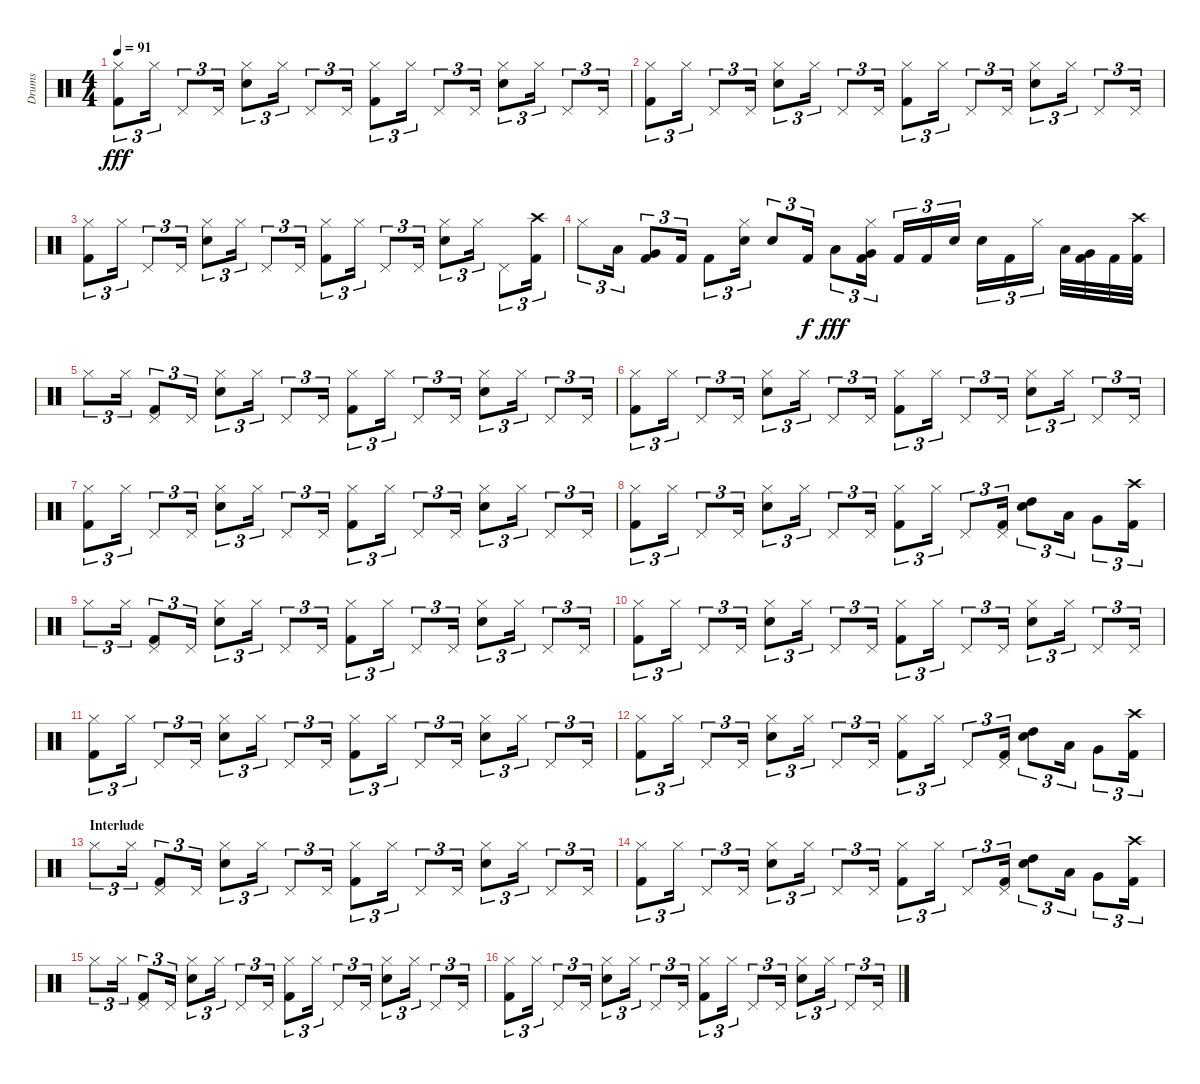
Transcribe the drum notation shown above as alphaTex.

\track ("Drums" "Drums") {instrument percussion}
\staff {score}
\articulation defaults
\ts (4 4)
\tempo 91
\clef neutral
\ks c
("Hi-Hat (closed)" "Kick (hit) 2").8{tu (3 2) dy fff} "Hi-Hat (closed)".16{tu (3 2)} "Pedal Hi-Hat (hit)".8{tu (3 2)} "Pedal Hi-Hat (hit)".16{tu (3 2)} ("Snare (hit) 2" "Hi-Hat (closed)").8{tu (3 2)} "Hi-Hat (closed)".16{tu (3 2)} "Pedal Hi-Hat (hit)".8{tu (3 2)} "Pedal Hi-Hat (hit)".16{tu (3 2)} ("Kick (hit) 2" "Hi-Hat (closed)").8{tu (3 2)} "Hi-Hat (closed)".16{tu (3 2)} "Pedal Hi-Hat (hit)".8{tu (3 2)} "Pedal Hi-Hat (hit)".16{tu (3 2)} ("Snare (hit) 2" "Hi-Hat (closed)").8{tu (3 2)} "Hi-Hat (closed)".16{tu (3 2)} "Pedal Hi-Hat (hit)".8{tu (3 2)} "Pedal Hi-Hat (hit)".16{tu (3 2)} |
("Hi-Hat (closed)" "Kick (hit) 2").8{tu (3 2)} "Hi-Hat (closed)".16{tu (3 2)} "Pedal Hi-Hat (hit)".8{tu (3 2)} "Pedal Hi-Hat (hit)".16{tu (3 2)} ("Snare (hit) 2" "Hi-Hat (closed)").8{tu (3 2)} "Hi-Hat (closed)".16{tu (3 2)} "Pedal Hi-Hat (hit)".8{tu (3 2)} "Pedal Hi-Hat (hit)".16{tu (3 2)} ("Kick (hit) 2" "Hi-Hat (closed)").8{tu (3 2)} "Hi-Hat (closed)".16{tu (3 2)} "Pedal Hi-Hat (hit)".8{tu (3 2)} "Pedal Hi-Hat (hit)".16{tu (3 2)} ("Snare (hit) 2" "Hi-Hat (closed)").8{tu (3 2)} "Hi-Hat (closed)".16{tu (3 2)} "Pedal Hi-Hat (hit)".8{tu (3 2)} "Pedal Hi-Hat (hit)".16{tu (3 2)} |
("Hi-Hat (closed)" "Kick (hit) 2").8{tu (3 2)} "Hi-Hat (closed)".16{tu (3 2)} "Pedal Hi-Hat (hit)".8{tu (3 2)} "Pedal Hi-Hat (hit)".16{tu (3 2)} ("Snare (hit) 2" "Hi-Hat (closed)").8{tu (3 2)} "Hi-Hat (closed)".16{tu (3 2)} "Pedal Hi-Hat (hit)".8{tu (3 2)} "Pedal Hi-Hat (hit)".16{tu (3 2)} ("Kick (hit) 2" "Hi-Hat (closed)").8{tu (3 2)} "Hi-Hat (closed)".16{tu (3 2)} "Pedal Hi-Hat (hit)".8{tu (3 2)} "Pedal Hi-Hat (hit)".16{tu (3 2)} ("Snare (hit) 2" "Hi-Hat (closed)").8{tu (3 2)} "Hi-Hat (closed)".16{tu (3 2)} "Pedal Hi-Hat (hit)".8{tu (3 2)} ("Crash high (hit)" "Kick (hit) 2").16{tu (3 2)} |
"Hi-Hat (closed)".8{tu (3 2)} "Low Tom (hit)".16{tu (3 2)} ("Very Low Tom (hit)" "Kick (hit) 2").8{tu (3 2)} "Kick (hit) 2".16{tu (3 2)} "Kick (hit) 2".8{tu (3 2)} ("Hi-Hat (closed)" "Snare (hit) 2").16{tu (3 2)} "Electric Snare (hit)".8{tu (3 2)} "Kick (hit) 2".16{tu (3 2) dy f} "Low Tom (hit)".8{tu (3 2) dy fff} ("Hi-Hat (closed)" "Very Low Tom (hit)" "Kick (hit) 2").16{tu (3 2)} "Kick (hit) 2".16{tu (3 2)} "Kick (hit) 2".16{tu (3 2)} "Snare (hit) 2".16{tu (3 2)} "Snare (hit) 2".16{tu (3 2)} "Kick (hit) 2".16{tu (3 2)} "Hi-Hat (closed)".16{tu (3 2)} "Low Tom (hit)".32 ("Very Low Tom (hit)" "Kick (hit) 2").32 "Kick (hit) 2".32 ("Crash high (hit)" "Kick (hit) 2").32 |
"Hi-Hat (closed)".8{tu (3 2)} "Hi-Hat (closed)".16{tu (3 2)} ("Kick (hit) 2" "Pedal Hi-Hat (hit)").8{tu (3 2)} "Pedal Hi-Hat (hit)".16{tu (3 2)} ("Snare (hit) 2" "Hi-Hat (closed)").8{tu (3 2)} "Hi-Hat (closed)".16{tu (3 2)} "Pedal Hi-Hat (hit)".8{tu (3 2)} "Pedal Hi-Hat (hit)".16{tu (3 2)} ("Kick (hit) 2" "Hi-Hat (closed)").8{tu (3 2)} "Hi-Hat (closed)".16{tu (3 2)} "Pedal Hi-Hat (hit)".8{tu (3 2)} "Pedal Hi-Hat (hit)".16{tu (3 2)} ("Snare (hit) 2" "Hi-Hat (closed)").8{tu (3 2)} "Hi-Hat (closed)".16{tu (3 2)} "Pedal Hi-Hat (hit)".8{tu (3 2)} "Pedal Hi-Hat (hit)".16{tu (3 2)} |
("Hi-Hat (closed)" "Kick (hit) 2").8{tu (3 2)} "Hi-Hat (closed)".16{tu (3 2)} "Pedal Hi-Hat (hit)".8{tu (3 2)} "Pedal Hi-Hat (hit)".16{tu (3 2)} ("Snare (hit) 2" "Hi-Hat (closed)").8{tu (3 2)} "Hi-Hat (closed)".16{tu (3 2)} "Pedal Hi-Hat (hit)".8{tu (3 2)} "Pedal Hi-Hat (hit)".16{tu (3 2)} ("Kick (hit) 2" "Hi-Hat (closed)").8{tu (3 2)} "Hi-Hat (closed)".16{tu (3 2)} "Pedal Hi-Hat (hit)".8{tu (3 2)} "Pedal Hi-Hat (hit)".16{tu (3 2)} ("Snare (hit) 2" "Hi-Hat (closed)").8{tu (3 2)} "Hi-Hat (closed)".16{tu (3 2)} "Pedal Hi-Hat (hit)".8{tu (3 2)} "Pedal Hi-Hat (hit)".16{tu (3 2)} |
("Hi-Hat (closed)" "Kick (hit) 2").8{tu (3 2)} "Hi-Hat (closed)".16{tu (3 2)} "Pedal Hi-Hat (hit)".8{tu (3 2)} "Pedal Hi-Hat (hit)".16{tu (3 2)} ("Snare (hit) 2" "Hi-Hat (closed)").8{tu (3 2)} "Hi-Hat (closed)".16{tu (3 2)} "Pedal Hi-Hat (hit)".8{tu (3 2)} "Pedal Hi-Hat (hit)".16{tu (3 2)} ("Kick (hit) 2" "Hi-Hat (closed)").8{tu (3 2)} "Hi-Hat (closed)".16{tu (3 2)} "Pedal Hi-Hat (hit)".8{tu (3 2)} "Pedal Hi-Hat (hit)".16{tu (3 2)} ("Snare (hit) 2" "Hi-Hat (closed)").8{tu (3 2)} "Hi-Hat (closed)".16{tu (3 2)} "Pedal Hi-Hat (hit)".8{tu (3 2)} "Pedal Hi-Hat (hit)".16{tu (3 2)} |
("Hi-Hat (closed)" "Kick (hit) 2").8{tu (3 2)} "Hi-Hat (closed)".16{tu (3 2)} "Pedal Hi-Hat (hit)".8{tu (3 2)} "Pedal Hi-Hat (hit)".16{tu (3 2)} ("Snare (hit) 2" "Hi-Hat (closed)").8{tu (3 2)} "Hi-Hat (closed)".16{tu (3 2)} "Pedal Hi-Hat (hit)".8{tu (3 2)} "Pedal Hi-Hat (hit)".16{tu (3 2)} ("Kick (hit) 2" "Hi-Hat (closed)").8{tu (3 2)} "Hi-Hat (closed)".16{tu (3 2)} "Pedal Hi-Hat (hit)".8{tu (3 2)} ("Kick (hit) 2" "Pedal Hi-Hat (hit)").16{tu (3 2)} ("Snare (hit) 2" "High Tom (hit)").8{tu (3 2)} "Low Tom (hit)".16{tu (3 2)} "Very Low Tom (hit)".8{tu (3 2)} ("Crash high (hit)" "Kick (hit) 2").16{tu (3 2)} |
"Hi-Hat (closed)".8{tu (3 2)} "Hi-Hat (closed)".16{tu (3 2)} ("Kick (hit) 2" "Pedal Hi-Hat (hit)").8{tu (3 2)} "Pedal Hi-Hat (hit)".16{tu (3 2)} ("Snare (hit) 2" "Hi-Hat (closed)").8{tu (3 2)} "Hi-Hat (closed)".16{tu (3 2)} "Pedal Hi-Hat (hit)".8{tu (3 2)} "Pedal Hi-Hat (hit)".16{tu (3 2)} ("Kick (hit) 2" "Hi-Hat (closed)").8{tu (3 2)} "Hi-Hat (closed)".16{tu (3 2)} "Pedal Hi-Hat (hit)".8{tu (3 2)} "Pedal Hi-Hat (hit)".16{tu (3 2)} ("Snare (hit) 2" "Hi-Hat (closed)").8{tu (3 2)} "Hi-Hat (closed)".16{tu (3 2)} "Pedal Hi-Hat (hit)".8{tu (3 2)} "Pedal Hi-Hat (hit)".16{tu (3 2)} |
("Hi-Hat (closed)" "Kick (hit) 2").8{tu (3 2)} "Hi-Hat (closed)".16{tu (3 2)} "Pedal Hi-Hat (hit)".8{tu (3 2)} "Pedal Hi-Hat (hit)".16{tu (3 2)} ("Snare (hit) 2" "Hi-Hat (closed)").8{tu (3 2)} "Hi-Hat (closed)".16{tu (3 2)} "Pedal Hi-Hat (hit)".8{tu (3 2)} "Pedal Hi-Hat (hit)".16{tu (3 2)} ("Kick (hit) 2" "Hi-Hat (closed)").8{tu (3 2)} "Hi-Hat (closed)".16{tu (3 2)} "Pedal Hi-Hat (hit)".8{tu (3 2)} "Pedal Hi-Hat (hit)".16{tu (3 2)} ("Snare (hit) 2" "Hi-Hat (closed)").8{tu (3 2)} "Hi-Hat (closed)".16{tu (3 2)} "Pedal Hi-Hat (hit)".8{tu (3 2)} "Pedal Hi-Hat (hit)".16{tu (3 2)} |
("Hi-Hat (closed)" "Kick (hit) 2").8{tu (3 2)} "Hi-Hat (closed)".16{tu (3 2)} "Pedal Hi-Hat (hit)".8{tu (3 2)} "Pedal Hi-Hat (hit)".16{tu (3 2)} ("Snare (hit) 2" "Hi-Hat (closed)").8{tu (3 2)} "Hi-Hat (closed)".16{tu (3 2)} "Pedal Hi-Hat (hit)".8{tu (3 2)} "Pedal Hi-Hat (hit)".16{tu (3 2)} ("Kick (hit) 2" "Hi-Hat (closed)").8{tu (3 2)} "Hi-Hat (closed)".16{tu (3 2)} "Pedal Hi-Hat (hit)".8{tu (3 2)} "Pedal Hi-Hat (hit)".16{tu (3 2)} ("Snare (hit) 2" "Hi-Hat (closed)").8{tu (3 2)} "Hi-Hat (closed)".16{tu (3 2)} "Pedal Hi-Hat (hit)".8{tu (3 2)} "Pedal Hi-Hat (hit)".16{tu (3 2)} |
("Hi-Hat (closed)" "Kick (hit) 2").8{tu (3 2)} "Hi-Hat (closed)".16{tu (3 2)} "Pedal Hi-Hat (hit)".8{tu (3 2)} "Pedal Hi-Hat (hit)".16{tu (3 2)} ("Snare (hit) 2" "Hi-Hat (closed)").8{tu (3 2)} "Hi-Hat (closed)".16{tu (3 2)} "Pedal Hi-Hat (hit)".8{tu (3 2)} "Pedal Hi-Hat (hit)".16{tu (3 2)} ("Kick (hit) 2" "Hi-Hat (closed)").8{tu (3 2)} "Hi-Hat (closed)".16{tu (3 2)} "Pedal Hi-Hat (hit)".8{tu (3 2)} ("Kick (hit) 2" "Pedal Hi-Hat (hit)").16{tu (3 2)} ("Snare (hit) 2" "High Tom (hit)").8{tu (3 2)} "Low Tom (hit)".16{tu (3 2)} "Very Low Tom (hit)".8{tu (3 2)} ("Crash high (hit)" "Kick (hit) 2").16{tu (3 2)} |
\section ("" "Interlude")
"Hi-Hat (closed)".8{tu (3 2)} "Hi-Hat (closed)".16{tu (3 2)} ("Kick (hit) 2" "Pedal Hi-Hat (hit)").8{tu (3 2)} "Pedal Hi-Hat (hit)".16{tu (3 2)} ("Snare (hit) 2" "Hi-Hat (closed)").8{tu (3 2)} "Hi-Hat (closed)".16{tu (3 2)} "Pedal Hi-Hat (hit)".8{tu (3 2)} "Pedal Hi-Hat (hit)".16{tu (3 2)} ("Kick (hit) 2" "Hi-Hat (closed)").8{tu (3 2)} "Hi-Hat (closed)".16{tu (3 2)} "Pedal Hi-Hat (hit)".8{tu (3 2)} "Pedal Hi-Hat (hit)".16{tu (3 2)} ("Snare (hit) 2" "Hi-Hat (closed)").8{tu (3 2)} "Hi-Hat (closed)".16{tu (3 2)} "Pedal Hi-Hat (hit)".8{tu (3 2)} "Pedal Hi-Hat (hit)".16{tu (3 2)} |
("Hi-Hat (closed)" "Kick (hit) 2").8{tu (3 2)} "Hi-Hat (closed)".16{tu (3 2)} "Pedal Hi-Hat (hit)".8{tu (3 2)} "Pedal Hi-Hat (hit)".16{tu (3 2)} ("Snare (hit) 2" "Hi-Hat (closed)").8{tu (3 2)} "Hi-Hat (closed)".16{tu (3 2)} "Pedal Hi-Hat (hit)".8{tu (3 2)} "Pedal Hi-Hat (hit)".16{tu (3 2)} ("Kick (hit) 2" "Hi-Hat (closed)").8{tu (3 2)} "Hi-Hat (closed)".16{tu (3 2)} "Pedal Hi-Hat (hit)".8{tu (3 2)} ("Kick (hit) 2" "Pedal Hi-Hat (hit)").16{tu (3 2)} ("Snare (hit) 2" "High Tom (hit)").8{tu (3 2)} "Low Tom (hit)".16{tu (3 2)} "Very Low Tom (hit)".8{tu (3 2)} ("Crash high (hit)" "Kick (hit) 2").16{tu (3 2)} |
"Hi-Hat (closed)".8{tu (3 2)} "Hi-Hat (closed)".16{tu (3 2)} ("Kick (hit) 2" "Pedal Hi-Hat (hit)").8{tu (3 2)} "Pedal Hi-Hat (hit)".16{tu (3 2)} ("Snare (hit) 2" "Hi-Hat (closed)").8{tu (3 2)} "Hi-Hat (closed)".16{tu (3 2)} "Pedal Hi-Hat (hit)".8{tu (3 2)} "Pedal Hi-Hat (hit)".16{tu (3 2)} ("Kick (hit) 2" "Hi-Hat (closed)").8{tu (3 2)} "Hi-Hat (closed)".16{tu (3 2)} "Pedal Hi-Hat (hit)".8{tu (3 2)} "Pedal Hi-Hat (hit)".16{tu (3 2)} ("Snare (hit) 2" "Hi-Hat (closed)").8{tu (3 2)} "Hi-Hat (closed)".16{tu (3 2)} "Pedal Hi-Hat (hit)".8{tu (3 2)} "Pedal Hi-Hat (hit)".16{tu (3 2)} |
("Hi-Hat (closed)" "Kick (hit) 2").8{tu (3 2)} "Hi-Hat (closed)".16{tu (3 2)} "Pedal Hi-Hat (hit)".8{tu (3 2)} "Pedal Hi-Hat (hit)".16{tu (3 2)} ("Snare (hit) 2" "Hi-Hat (closed)").8{tu (3 2)} "Hi-Hat (closed)".16{tu (3 2)} "Pedal Hi-Hat (hit)".8{tu (3 2)} "Pedal Hi-Hat (hit)".16{tu (3 2)} ("Kick (hit) 2" "Hi-Hat (closed)").8{tu (3 2)} "Hi-Hat (closed)".16{tu (3 2)} "Pedal Hi-Hat (hit)".8{tu (3 2)} "Pedal Hi-Hat (hit)".16{tu (3 2)} ("Snare (hit) 2" "Hi-Hat (closed)").8{tu (3 2)} "Hi-Hat (closed)".16{tu (3 2)} "Pedal Hi-Hat (hit)".8{tu (3 2)} "Pedal Hi-Hat (hit)".16{tu (3 2)}
